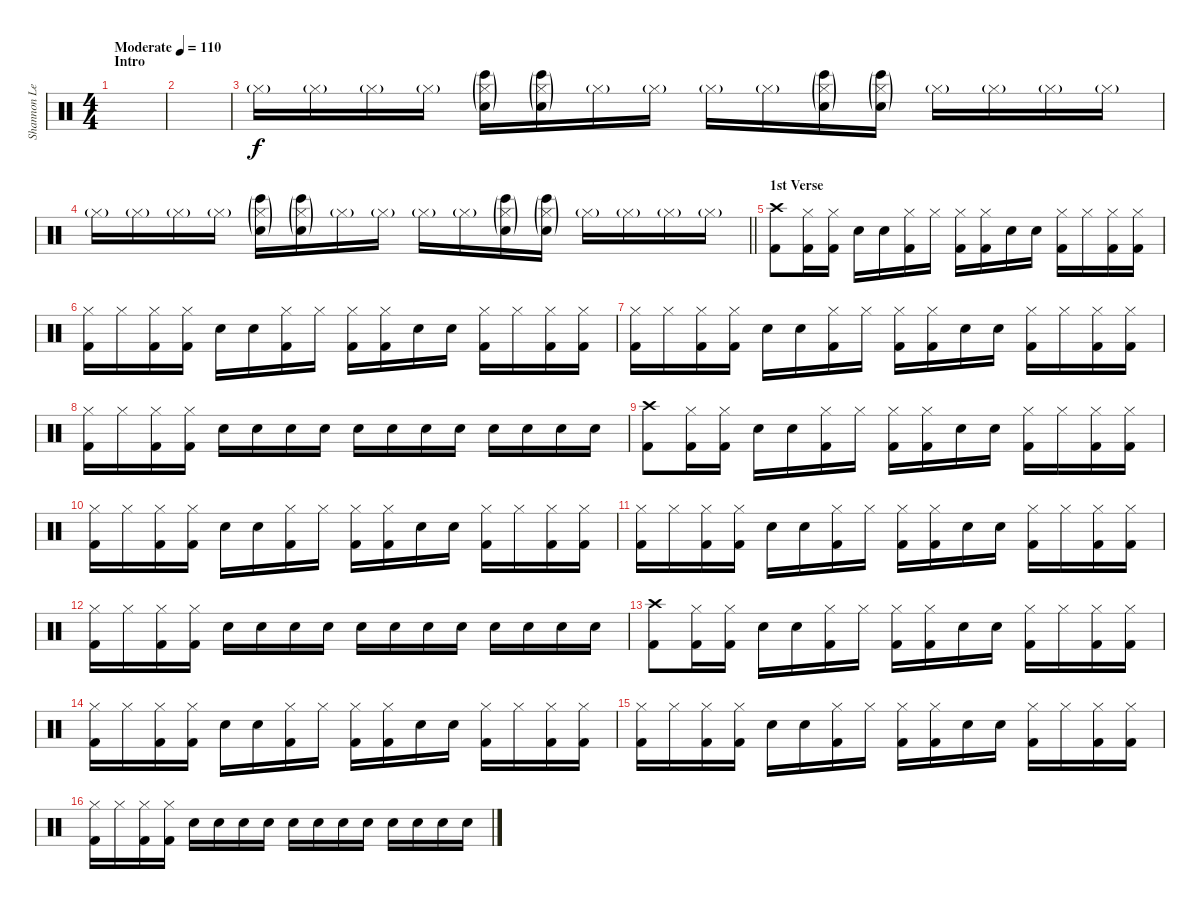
\track ("Shannon Leto [Drums]" "Shannon Le") {instrument percussion}
\staff {score}
\articulation defaults
\ts (4 4)
\section ("" "Intro")
\tempo (110 "Moderate")
\clef neutral
\ks c
|
|
"Hi-Hat (closed)"{g}.16 "Hi-Hat (closed)"{g}.16 "Hi-Hat (closed)"{g}.16 "Hi-Hat (closed)"{g}.16 ("Hi-Hat (closed)"{g} "Bongo High (hit)"{g} "Hand Clap (hit)"{g}).16 ("Hi-Hat (closed)"{g} "Bongo High (hit)"{g} "Hand Clap (hit)"{g}).16 "Hi-Hat (closed)"{g}.16 "Hi-Hat (closed)"{g}.16 "Hi-Hat (closed)"{g}.16 "Hi-Hat (closed)"{g}.16 ("Hi-Hat (closed)"{g} "Bongo High (hit)"{g} "Hand Clap (hit)"{g}).16 ("Hi-Hat (closed)"{g} "Bongo High (hit)"{g} "Hand Clap (hit)"{g}).16 "Hi-Hat (closed)"{g}.16 "Hi-Hat (closed)"{g}.16 "Hi-Hat (closed)"{g}.16 "Hi-Hat (closed)"{g}.16 |
\barLineRight lightlight "Hi-Hat (closed)"{g}.16 "Hi-Hat (closed)"{g}.16 "Hi-Hat (closed)"{g}.16 "Hi-Hat (closed)"{g}.16
("Hi-Hat (closed)"{g} "Bongo High (hit)"{g} "Hand Clap (hit)"{g}).16 ("Hi-Hat (closed)"{g} "Bongo High (hit)"{g} "Hand Clap (hit)"{g}).16 "Hi-Hat (closed)"{g}.16 "Hi-Hat (closed)"{g}.16 "Hi-Hat (closed)"{g}.16 "Hi-Hat (closed)"{g}.16 ("Hi-Hat (closed)"{g} "Bongo High (hit)"{g} "Hand Clap (hit)"{g}).16 ("Hi-Hat (closed)"{g} "Bongo High (hit)"{g} "Hand Clap (hit)"{g}).16 "Hi-Hat (closed)"{g}.16 "Hi-Hat (closed)"{g}.16 "Hi-Hat (closed)"{g}.16 "Hi-Hat (closed)"{g}.16 |
\section ("" "1st Verse")
("Crash high (hit)" "Kick (hit) 2").8{dy f} ("Hi-Hat (closed)" "Kick (hit) 2").16 ("Hi-Hat (closed)" "Kick (hit) 2").16 "Electric Snare (hit)".16 "Electric Snare (hit)".16 ("Hi-Hat (closed)" "Kick (hit) 2").16 "Hi-Hat (closed)".16 ("Hi-Hat (closed)" "Kick (hit) 2").16 ("Hi-Hat (closed)" "Kick (hit) 2").16 "Electric Snare (hit)".16 "Electric Snare (hit)".16 ("Hi-Hat (closed)" "Kick (hit) 2").16 "Hi-Hat (closed)".16 ("Hi-Hat (closed)" "Kick (hit) 2").16 ("Hi-Hat (closed)" "Kick (hit) 2").16 |
("Hi-Hat (closed)" "Kick (hit) 2").16 "Hi-Hat (closed)".16 ("Hi-Hat (closed)" "Kick (hit) 2").16 ("Hi-Hat (closed)" "Kick (hit) 2").16 "Electric Snare (hit)".16 "Electric Snare (hit)".16 ("Hi-Hat (closed)" "Kick (hit) 2").16 "Hi-Hat (closed)".16 ("Hi-Hat (closed)" "Kick (hit) 2").16 ("Hi-Hat (closed)" "Kick (hit) 2").16 "Electric Snare (hit)".16 "Electric Snare (hit)".16 ("Hi-Hat (closed)" "Kick (hit) 2").16 "Hi-Hat (closed)".16 ("Hi-Hat (closed)" "Kick (hit) 2").16 ("Hi-Hat (closed)" "Kick (hit) 2").16 |
("Hi-Hat (closed)" "Kick (hit) 2").16 "Hi-Hat (closed)".16 ("Hi-Hat (closed)" "Kick (hit) 2").16 ("Hi-Hat (closed)" "Kick (hit) 2").16 "Electric Snare (hit)".16 "Electric Snare (hit)".16 ("Hi-Hat (closed)" "Kick (hit) 2").16 "Hi-Hat (closed)".16 ("Hi-Hat (closed)" "Kick (hit) 2").16 ("Hi-Hat (closed)" "Kick (hit) 2").16 "Electric Snare (hit)".16 "Electric Snare (hit)".16 ("Hi-Hat (closed)" "Kick (hit) 2").16 "Hi-Hat (closed)".16 ("Hi-Hat (closed)" "Kick (hit) 2").16 ("Hi-Hat (closed)" "Kick (hit) 2").16 |
("Hi-Hat (closed)" "Kick (hit) 2").16 "Hi-Hat (closed)".16 ("Hi-Hat (closed)" "Kick (hit) 2").16 ("Hi-Hat (closed)" "Kick (hit) 2").16 "Electric Snare (hit)".16{volume 6} "Electric Snare (hit)".16 "Electric Snare (hit)".16 "Electric Snare (hit)".16{volume 9} "Electric Snare (hit)".16 "Electric Snare (hit)".16 "Electric Snare (hit)".16 "Electric Snare (hit)".16{volume 11} "Electric Snare (hit)".16 "Electric Snare (hit)".16 "Electric Snare (hit)".16{volume 13} "Electric Snare (hit)".16 |
("Crash high (hit)" "Kick (hit) 2").8 ("Hi-Hat (closed)" "Kick (hit) 2").16 ("Hi-Hat (closed)" "Kick (hit) 2").16 "Electric Snare (hit)".16 "Electric Snare (hit)".16 ("Hi-Hat (closed)" "Kick (hit) 2").16 "Hi-Hat (closed)".16 ("Hi-Hat (closed)" "Kick (hit) 2").16 ("Hi-Hat (closed)" "Kick (hit) 2").16 "Electric Snare (hit)".16 "Electric Snare (hit)".16 ("Hi-Hat (closed)" "Kick (hit) 2").16 "Hi-Hat (closed)".16 ("Hi-Hat (closed)" "Kick (hit) 2").16 ("Hi-Hat (closed)" "Kick (hit) 2").16 |
("Hi-Hat (closed)" "Kick (hit) 2").16 "Hi-Hat (closed)".16 ("Hi-Hat (closed)" "Kick (hit) 2").16 ("Hi-Hat (closed)" "Kick (hit) 2").16 "Electric Snare (hit)".16 "Electric Snare (hit)".16 ("Hi-Hat (closed)" "Kick (hit) 2").16 "Hi-Hat (closed)".16 ("Hi-Hat (closed)" "Kick (hit) 2").16 ("Hi-Hat (closed)" "Kick (hit) 2").16 "Electric Snare (hit)".16 "Electric Snare (hit)".16 ("Hi-Hat (closed)" "Kick (hit) 2").16 "Hi-Hat (closed)".16 ("Hi-Hat (closed)" "Kick (hit) 2").16 ("Hi-Hat (closed)" "Kick (hit) 2").16 |
("Hi-Hat (closed)" "Kick (hit) 2").16 "Hi-Hat (closed)".16 ("Hi-Hat (closed)" "Kick (hit) 2").16 ("Hi-Hat (closed)" "Kick (hit) 2").16 "Electric Snare (hit)".16 "Electric Snare (hit)".16 ("Hi-Hat (closed)" "Kick (hit) 2").16 "Hi-Hat (closed)".16 ("Hi-Hat (closed)" "Kick (hit) 2").16 ("Hi-Hat (closed)" "Kick (hit) 2").16 "Electric Snare (hit)".16 "Electric Snare (hit)".16 ("Hi-Hat (closed)" "Kick (hit) 2").16 "Hi-Hat (closed)".16 ("Hi-Hat (closed)" "Kick (hit) 2").16 ("Hi-Hat (closed)" "Kick (hit) 2").16 |
("Hi-Hat (closed)" "Kick (hit) 2").16 "Hi-Hat (closed)".16 ("Hi-Hat (closed)" "Kick (hit) 2").16 ("Hi-Hat (closed)" "Kick (hit) 2").16 "Electric Snare (hit)".16{volume 6} "Electric Snare (hit)".16 "Electric Snare (hit)".16 "Electric Snare (hit)".16{volume 9} "Electric Snare (hit)".16 "Electric Snare (hit)".16 "Electric Snare (hit)".16 "Electric Snare (hit)".16{volume 11} "Electric Snare (hit)".16 "Electric Snare (hit)".16 "Electric Snare (hit)".16{volume 13} "Electric Snare (hit)".16 |
("Crash high (hit)" "Kick (hit) 2").8 ("Hi-Hat (closed)" "Kick (hit) 2").16 ("Hi-Hat (closed)" "Kick (hit) 2").16 "Electric Snare (hit)".16 "Electric Snare (hit)".16 ("Hi-Hat (closed)" "Kick (hit) 2").16 "Hi-Hat (closed)".16 ("Hi-Hat (closed)" "Kick (hit) 2").16 ("Hi-Hat (closed)" "Kick (hit) 2").16 "Electric Snare (hit)".16 "Electric Snare (hit)".16 ("Hi-Hat (closed)" "Kick (hit) 2").16 "Hi-Hat (closed)".16 ("Hi-Hat (closed)" "Kick (hit) 2").16 ("Hi-Hat (closed)" "Kick (hit) 2").16 |
("Hi-Hat (closed)" "Kick (hit) 2").16 "Hi-Hat (closed)".16 ("Hi-Hat (closed)" "Kick (hit) 2").16 ("Hi-Hat (closed)" "Kick (hit) 2").16 "Electric Snare (hit)".16 "Electric Snare (hit)".16 ("Hi-Hat (closed)" "Kick (hit) 2").16 "Hi-Hat (closed)".16 ("Hi-Hat (closed)" "Kick (hit) 2").16 ("Hi-Hat (closed)" "Kick (hit) 2").16 "Electric Snare (hit)".16 "Electric Snare (hit)".16 ("Hi-Hat (closed)" "Kick (hit) 2").16 "Hi-Hat (closed)".16 ("Hi-Hat (closed)" "Kick (hit) 2").16 ("Hi-Hat (closed)" "Kick (hit) 2").16 |
("Hi-Hat (closed)" "Kick (hit) 2").16 "Hi-Hat (closed)".16 ("Hi-Hat (closed)" "Kick (hit) 2").16 ("Hi-Hat (closed)" "Kick (hit) 2").16 "Electric Snare (hit)".16 "Electric Snare (hit)".16 ("Hi-Hat (closed)" "Kick (hit) 2").16 "Hi-Hat (closed)".16 ("Hi-Hat (closed)" "Kick (hit) 2").16 ("Hi-Hat (closed)" "Kick (hit) 2").16 "Electric Snare (hit)".16 "Electric Snare (hit)".16 ("Hi-Hat (closed)" "Kick (hit) 2").16 "Hi-Hat (closed)".16 ("Hi-Hat (closed)" "Kick (hit) 2").16 ("Hi-Hat (closed)" "Kick (hit) 2").16 |
("Hi-Hat (closed)" "Kick (hit) 2").16 "Hi-Hat (closed)".16 ("Hi-Hat (closed)" "Kick (hit) 2").16 ("Hi-Hat (closed)" "Kick (hit) 2").16 "Electric Snare (hit)".16{volume 6} "Electric Snare (hit)".16 "Electric Snare (hit)".16 "Electric Snare (hit)".16{volume 9} "Electric Snare (hit)".16 "Electric Snare (hit)".16 "Electric Snare (hit)".16 "Electric Snare (hit)".16{volume 11} "Electric Snare (hit)".16 "Electric Snare (hit)".16 "Electric Snare (hit)".16{volume 13} "Electric Snare (hit)".16
